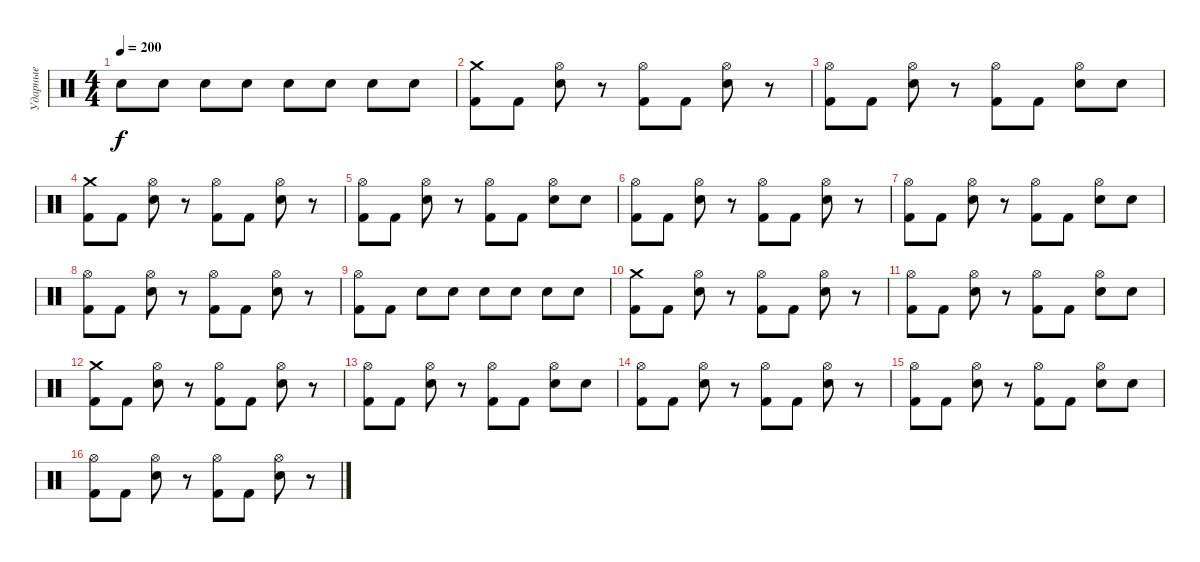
\track ("Ударные" "Ударные") {instrument percussion}
\staff {score}
\articulation defaults
\ts (4 4)
\tempo 200
\clef neutral
\ks c "Snare (hit) 2".8{dy f} "Snare (hit) 2".8 "Snare (hit) 2".8 "Snare (hit) 2".8 "Snare (hit) 2".8 "Snare (hit) 2".8 "Snare (hit) 2".8 "Snare (hit) 2".8
|
("Crash medium (hit)" "Kick (hit) 2").8 "Kick (hit) 2".8 ("Hi-Hat (open)" "Snare (hit) 2").8 r.8 ("Hi-Hat (open)" "Kick (hit) 2").8 "Kick (hit) 2".8 ("Hi-Hat (open)" "Snare (hit) 2").8 r.8 |
("Hi-Hat (open)" "Kick (hit) 2").8 "Kick (hit) 2".8 ("Hi-Hat (open)" "Snare (hit) 2").8 r.8 ("Hi-Hat (open)" "Kick (hit) 2").8 "Kick (hit) 2".8 ("Hi-Hat (open)" "Snare (hit) 2").8 "Snare (hit) 2".8 |
("Crash medium (hit)" "Kick (hit) 2").8 "Kick (hit) 2".8 ("Hi-Hat (open)" "Snare (hit) 2").8 r.8 ("Hi-Hat (open)" "Kick (hit) 2").8 "Kick (hit) 2".8 ("Hi-Hat (open)" "Snare (hit) 2").8 r.8 |
("Hi-Hat (open)" "Kick (hit) 2").8 "Kick (hit) 2".8 ("Hi-Hat (open)" "Snare (hit) 2").8 r.8 ("Hi-Hat (open)" "Kick (hit) 2").8 "Kick (hit) 2".8 ("Hi-Hat (open)" "Snare (hit) 2").8 "Snare (hit) 2".8 |
("Hi-Hat (open)" "Kick (hit) 2").8 "Kick (hit) 2".8 ("Hi-Hat (open)" "Snare (hit) 2").8 r.8 ("Hi-Hat (open)" "Kick (hit) 2").8 "Kick (hit) 2".8 ("Hi-Hat (open)" "Snare (hit) 2").8 r.8 |
("Hi-Hat (open)" "Kick (hit) 2").8 "Kick (hit) 2".8 ("Hi-Hat (open)" "Snare (hit) 2").8 r.8 ("Hi-Hat (open)" "Kick (hit) 2").8 "Kick (hit) 2".8 ("Hi-Hat (open)" "Snare (hit) 2").8 "Snare (hit) 2".8 |
("Hi-Hat (open)" "Kick (hit) 2").8 "Kick (hit) 2".8 ("Hi-Hat (open)" "Snare (hit) 2").8 r.8 ("Hi-Hat (open)" "Kick (hit) 2").8 "Kick (hit) 2".8 ("Hi-Hat (open)" "Snare (hit) 2").8 r.8 |
("Hi-Hat (open)" "Kick (hit) 2").8 "Kick (hit) 2".8 "Snare (hit) 2".8 "Snare (hit) 2".8 "Snare (hit) 2".8 "Snare (hit) 2".8 "Snare (hit) 2".8 "Snare (hit) 2".8 |
("Crash medium (hit)" "Kick (hit) 2").8 "Kick (hit) 2".8 ("Hi-Hat (open)" "Snare (hit) 2").8 r.8 ("Hi-Hat (open)" "Kick (hit) 2").8 "Kick (hit) 2".8 ("Hi-Hat (open)" "Snare (hit) 2").8 r.8 |
("Hi-Hat (open)" "Kick (hit) 2").8 "Kick (hit) 2".8 ("Hi-Hat (open)" "Snare (hit) 2").8 r.8 ("Hi-Hat (open)" "Kick (hit) 2").8 "Kick (hit) 2".8 ("Hi-Hat (open)" "Snare (hit) 2").8 "Snare (hit) 2".8 |
("Crash medium (hit)" "Kick (hit) 2").8 "Kick (hit) 2".8 ("Hi-Hat (open)" "Snare (hit) 2").8 r.8 ("Hi-Hat (open)" "Kick (hit) 2").8 "Kick (hit) 2".8 ("Hi-Hat (open)" "Snare (hit) 2").8 r.8 |
("Hi-Hat (open)" "Kick (hit) 2").8 "Kick (hit) 2".8 ("Hi-Hat (open)" "Snare (hit) 2").8 r.8 ("Hi-Hat (open)" "Kick (hit) 2").8 "Kick (hit) 2".8 ("Hi-Hat (open)" "Snare (hit) 2").8 "Snare (hit) 2".8 |
("Hi-Hat (open)" "Kick (hit) 2").8 "Kick (hit) 2".8 ("Hi-Hat (open)" "Snare (hit) 2").8 r.8 ("Hi-Hat (open)" "Kick (hit) 2").8 "Kick (hit) 2".8 ("Hi-Hat (open)" "Snare (hit) 2").8 r.8 |
("Hi-Hat (open)" "Kick (hit) 2").8 "Kick (hit) 2".8 ("Hi-Hat (open)" "Snare (hit) 2").8 r.8 ("Hi-Hat (open)" "Kick (hit) 2").8 "Kick (hit) 2".8 ("Hi-Hat (open)" "Snare (hit) 2").8 "Snare (hit) 2".8 |
("Hi-Hat (open)" "Kick (hit) 2").8 "Kick (hit) 2".8 ("Hi-Hat (open)" "Snare (hit) 2").8 r.8 ("Hi-Hat (open)" "Kick (hit) 2").8 "Kick (hit) 2".8 ("Hi-Hat (open)" "Snare (hit) 2").8 r.8
